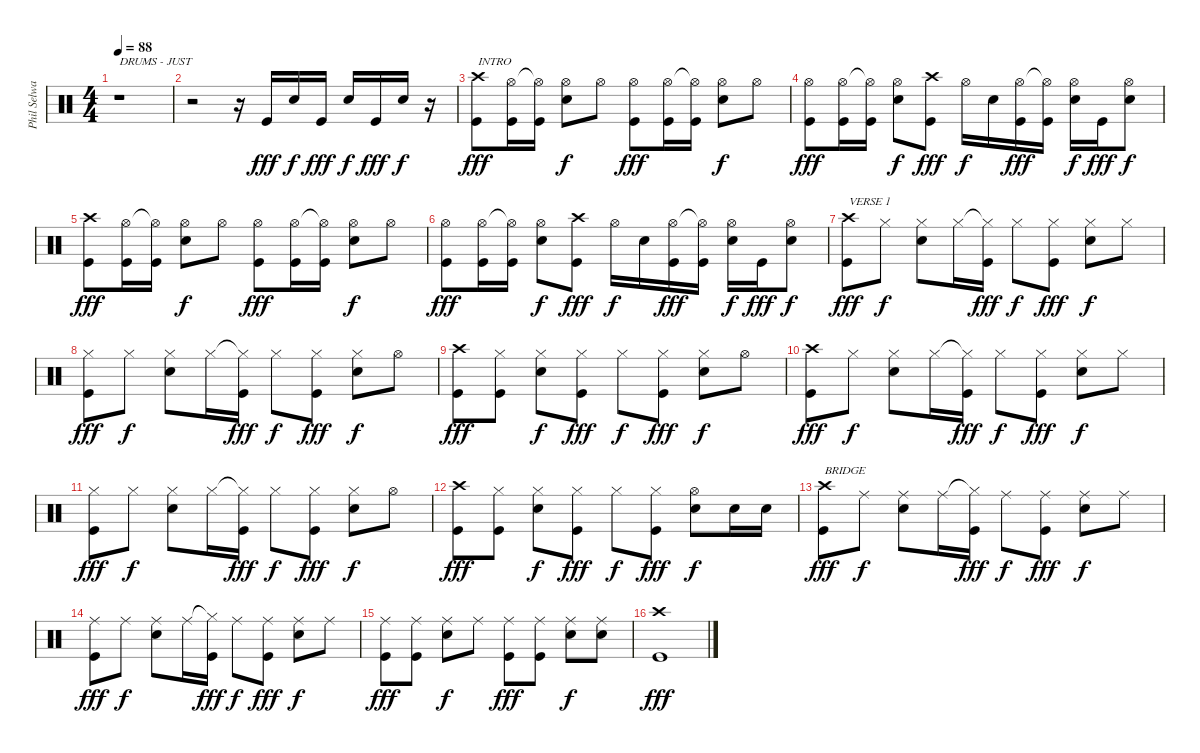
\track ("Phil Selway" "Phil Selwa") {instrument percussion}
\staff {score}
\articulation defaults
\ts (4 4)
\tempo 88
\clef neutral
\ks c
r.1{txt "DRUMS - JUST" dy fff} |
r.2 r.16 "Kick (hit)".16 "Snare (hit) 2".16{dy f} "Kick (hit)".16{dy fff} "Snare (hit) 2".16{dy f} "Kick (hit)".16{dy fff} "Snare (hit) 2".16{dy f} r.16 |
("Crash high (hit)" "Kick (hit)").8{txt "INTRO" dy fff} ("Hi-Hat (open)" "Kick (hit)").16 ("Hi-Hat (open)"{t} "Kick (hit)").16 ("Hi-Hat (open)" "Snare (hit) 2").8{dy f} "Hi-Hat (open)".8 ("Hi-Hat (open)" "Kick (hit)").8{dy fff} ("Hi-Hat (open)" "Kick (hit)").16 ("Hi-Hat (open)"{t} "Kick (hit)").16 ("Hi-Hat (open)" "Snare (hit) 2").8{dy f} "Hi-Hat (open)".8 |
("Hi-Hat (open)" "Kick (hit)").8{dy fff} ("Hi-Hat (open)" "Kick (hit)").16 ("Hi-Hat (open)"{t} "Kick (hit)").16 ("Hi-Hat (open)" "Snare (hit) 2").8{dy f} ("Crash high (hit)" "Kick (hit)").8{dy fff} "Hi-Hat (open)".16{dy f} "Snare (hit) 2".16 ("Hi-Hat (open)" "Kick (hit)").16{dy fff} ("Hi-Hat (open)"{t} "Kick (hit)").16 ("Hi-Hat (open)" "Snare (hit) 2").16{dy f} "Kick (hit)".16{dy fff} ("Hi-Hat (open)" "Snare (hit) 2").8{dy f} |
("Crash high (hit)" "Kick (hit)").8{dy fff} ("Hi-Hat (open)" "Kick (hit)").16 ("Hi-Hat (open)"{t} "Kick (hit)").16 ("Hi-Hat (open)" "Snare (hit) 2").8{dy f} "Hi-Hat (open)".8 ("Hi-Hat (open)" "Kick (hit)").8{dy fff} ("Hi-Hat (open)" "Kick (hit)").16 ("Hi-Hat (open)"{t} "Kick (hit)").16 ("Hi-Hat (open)" "Snare (hit) 2").8{dy f} "Hi-Hat (open)".8 |
("Hi-Hat (open)" "Kick (hit)").8{dy fff} ("Hi-Hat (open)" "Kick (hit)").16 ("Hi-Hat (open)"{t} "Kick (hit)").16 ("Hi-Hat (open)" "Snare (hit) 2").8{dy f} ("Crash high (hit)" "Kick (hit)").8{dy fff} "Hi-Hat (open)".16{dy f} "Snare (hit) 2".16 ("Hi-Hat (open)" "Kick (hit)").16{dy fff} ("Hi-Hat (open)"{t} "Kick (hit)").16 ("Hi-Hat (open)" "Snare (hit) 2").16{dy f} "Kick (hit)".16{dy fff} ("Hi-Hat (open)" "Snare (hit) 2").8{dy f} |
("Crash high (hit)" "Kick (hit)").8{txt "VERSE 1" dy fff} "Hi-Hat (closed)".8{dy f} ("Hi-Hat (closed)" "Snare (hit) 2").8 "Hi-Hat (closed)".16 ("Hi-Hat (closed)"{t} "Kick (hit)").16{dy fff} "Hi-Hat (closed)".8{dy f} ("Hi-Hat (closed)" "Kick (hit)").8{dy fff} ("Hi-Hat (closed)" "Snare (hit) 2").8{dy f} "Hi-Hat (closed)".8 |
("Hi-Hat (closed)" "Kick (hit)").8{dy fff} "Hi-Hat (closed)".8{dy f} ("Hi-Hat (closed)" "Snare (hit) 2").8 "Hi-Hat (closed)".16 ("Hi-Hat (closed)"{t} "Kick (hit)").16{dy fff} "Hi-Hat (closed)".8{dy f} ("Hi-Hat (closed)" "Kick (hit)").8{dy fff} ("Hi-Hat (closed)" "Snare (hit) 2").8{dy f} "Hi-Hat (open)".8 |
("Crash high (hit)" "Kick (hit)").8{dy fff} ("Hi-Hat (closed)" "Kick (hit)").8 ("Hi-Hat (closed)" "Snare (hit) 2").8{dy f} ("Hi-Hat (closed)" "Kick (hit)").8{dy fff} "Hi-Hat (closed)".8{dy f} ("Hi-Hat (closed)" "Kick (hit)").8{dy fff} ("Hi-Hat (closed)" "Snare (hit) 2").8{dy f} "Hi-Hat (open)".8 |
("Crash high (hit)" "Kick (hit)").8{dy fff} "Hi-Hat (closed)".8{dy f} ("Hi-Hat (closed)" "Snare (hit) 2").8 "Hi-Hat (closed)".16 ("Hi-Hat (closed)"{t} "Kick (hit)").16{dy fff} "Hi-Hat (closed)".8{dy f} ("Hi-Hat (closed)" "Kick (hit)").8{dy fff} ("Hi-Hat (closed)" "Snare (hit) 2").8{dy f} "Hi-Hat (closed)".8 |
("Hi-Hat (closed)" "Kick (hit)").8{dy fff} "Hi-Hat (closed)".8{dy f} ("Hi-Hat (closed)" "Snare (hit) 2").8 "Hi-Hat (closed)".16 ("Hi-Hat (closed)"{t} "Kick (hit)").16{dy fff} "Hi-Hat (closed)".8{dy f} ("Hi-Hat (closed)" "Kick (hit)").8{dy fff} ("Hi-Hat (closed)" "Snare (hit) 2").8{dy f} "Hi-Hat (open)".8 |
("Crash high (hit)" "Kick (hit)").8{dy fff} ("Hi-Hat (closed)" "Kick (hit)").8 ("Hi-Hat (closed)" "Snare (hit) 2").8{dy f} ("Hi-Hat (closed)" "Kick (hit)").8{dy fff} "Hi-Hat (closed)".8{dy f} ("Hi-Hat (closed)" "Kick (hit)").8{dy fff} ("Hi-Hat (open)" "Snare (hit) 2").8{dy f} "Snare (hit) 2".16 "Snare (hit) 2".16 |
("Crash high (hit)" "Kick (hit)").8{txt "BRIDGE" dy fff} "Ride (middle)".8{dy f} ("Ride (middle)" "Snare (hit) 2").8 "Ride (middle)".16 ("Hi-Hat (closed)"{t} "Kick (hit)").16{dy fff} "Ride (middle)".8{dy f} ("Ride (middle)" "Kick (hit)").8{dy fff} ("Ride (middle)" "Snare (hit) 2").8{dy f} "Ride (middle)".8 |
("Ride (middle)" "Kick (hit)").8{dy fff} "Ride (middle)".8{dy f} ("Ride (middle)" "Snare (hit) 2").8 "Ride (middle)".16 ("Hi-Hat (closed)"{t} "Kick (hit)").16{dy fff} "Ride (middle)".8{dy f} ("Ride (middle)" "Kick (hit)").8{dy fff} ("Ride (middle)" "Snare (hit) 2").8{dy f} "Ride (middle)".8 |
("Ride (middle)" "Kick (hit)").8{dy fff} ("Ride (middle)" "Kick (hit)").8 ("Ride (middle)" "Snare (hit) 2").8{dy f} "Ride (middle)".8 ("Ride (middle)" "Kick (hit)").8{dy fff} ("Ride (middle)" "Kick (hit)").8 ("Ride (middle)" "Snare (hit) 2").8{dy f} ("Ride (middle)" "Snare (hit) 2").8 |
("Crash high (hit)" "Kick (hit)").1{dy fff}
